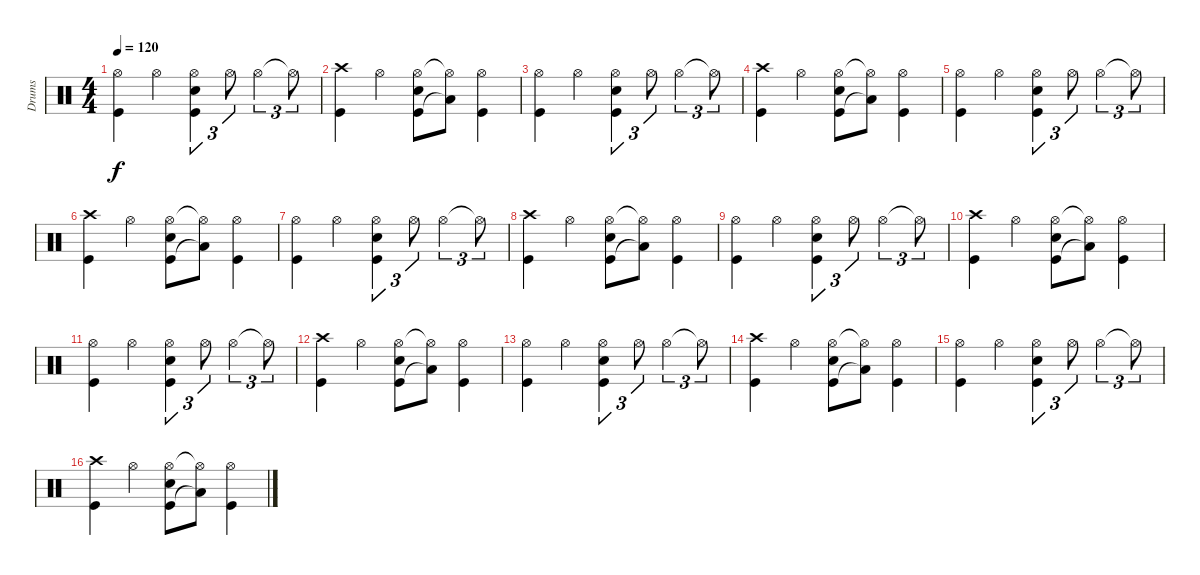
\track ("Drums" "Drums") {instrument percussion}
\staff {score}
\articulation defaults
\ts (4 4)
\tempo 120
\clef neutral
\ks c
("Hi-Hat (open)" "Kick (hit)").4{dy f} "Hi-Hat (open)".4 ("Hi-Hat (open)" "Kick (hit)" "Electric Snare (hit)").4{tu (3 2)} "Hi-Hat (open)".8{tu (3 2)} "Hi-Hat (open)".4{tu (3 2)} "Hi-Hat (open)"{t}.8{tu (3 2)} |
("Crash high (hit)" "Kick (hit)").4 "Hi-Hat (open)".4 ("Hi-Hat (open)" "Kick (hit)" "Electric Snare (hit)").8 ("Hi-Hat (open)"{t} "Low Tom (hit)"{t}).8 ("Hi-Hat (open)" "Kick (hit)").4 |
("Hi-Hat (open)" "Kick (hit)").4 "Hi-Hat (open)".4 ("Hi-Hat (open)" "Kick (hit)" "Electric Snare (hit)").4{tu (3 2)} "Hi-Hat (open)".8{tu (3 2)} "Hi-Hat (open)".4{tu (3 2)} "Hi-Hat (open)"{t}.8{tu (3 2)} |
("Crash high (hit)" "Kick (hit)").4 "Hi-Hat (open)".4 ("Hi-Hat (open)" "Kick (hit)" "Electric Snare (hit)").8 ("Hi-Hat (open)"{t} "Low Tom (hit)"{t}).8 ("Hi-Hat (open)" "Kick (hit)").4 |
("Hi-Hat (open)" "Kick (hit)").4 "Hi-Hat (open)".4 ("Hi-Hat (open)" "Kick (hit)" "Electric Snare (hit)").4{tu (3 2)} "Hi-Hat (open)".8{tu (3 2)} "Hi-Hat (open)".4{tu (3 2)} "Hi-Hat (open)"{t}.8{tu (3 2)} |
("Crash high (hit)" "Kick (hit)").4 "Hi-Hat (open)".4 ("Hi-Hat (open)" "Kick (hit)" "Electric Snare (hit)").8 ("Hi-Hat (open)"{t} "Low Tom (hit)"{t}).8 ("Hi-Hat (open)" "Kick (hit)").4 |
("Hi-Hat (open)" "Kick (hit)").4 "Hi-Hat (open)".4 ("Hi-Hat (open)" "Kick (hit)" "Electric Snare (hit)").4{tu (3 2)} "Hi-Hat (open)".8{tu (3 2)} "Hi-Hat (open)".4{tu (3 2)} "Hi-Hat (open)"{t}.8{tu (3 2)} |
("Crash high (hit)" "Kick (hit)").4 "Hi-Hat (open)".4 ("Hi-Hat (open)" "Kick (hit)" "Electric Snare (hit)").8 ("Hi-Hat (open)"{t} "Low Tom (hit)"{t}).8 ("Hi-Hat (open)" "Kick (hit)").4 |
("Hi-Hat (open)" "Kick (hit)").4 "Hi-Hat (open)".4 ("Hi-Hat (open)" "Kick (hit)" "Electric Snare (hit)").4{tu (3 2)} "Hi-Hat (open)".8{tu (3 2)} "Hi-Hat (open)".4{tu (3 2)} "Hi-Hat (open)"{t}.8{tu (3 2)} |
("Crash high (hit)" "Kick (hit)").4 "Hi-Hat (open)".4 ("Hi-Hat (open)" "Kick (hit)" "Electric Snare (hit)").8 ("Hi-Hat (open)"{t} "Low Tom (hit)"{t}).8 ("Hi-Hat (open)" "Kick (hit)").4 |
("Hi-Hat (open)" "Kick (hit)").4 "Hi-Hat (open)".4 ("Hi-Hat (open)" "Kick (hit)" "Electric Snare (hit)").4{tu (3 2)} "Hi-Hat (open)".8{tu (3 2)} "Hi-Hat (open)".4{tu (3 2)} "Hi-Hat (open)"{t}.8{tu (3 2)} |
("Crash high (hit)" "Kick (hit)").4 "Hi-Hat (open)".4 ("Hi-Hat (open)" "Kick (hit)" "Electric Snare (hit)").8 ("Hi-Hat (open)"{t} "Low Tom (hit)"{t}).8 ("Hi-Hat (open)" "Kick (hit)").4 |
("Hi-Hat (open)" "Kick (hit)").4 "Hi-Hat (open)".4 ("Hi-Hat (open)" "Kick (hit)" "Electric Snare (hit)").4{tu (3 2)} "Hi-Hat (open)".8{tu (3 2)} "Hi-Hat (open)".4{tu (3 2)} "Hi-Hat (open)"{t}.8{tu (3 2)} |
("Crash high (hit)" "Kick (hit)").4 "Hi-Hat (open)".4 ("Hi-Hat (open)" "Kick (hit)" "Electric Snare (hit)").8 ("Hi-Hat (open)"{t} "Low Tom (hit)"{t}).8 ("Hi-Hat (open)" "Kick (hit)").4 |
("Hi-Hat (open)" "Kick (hit)").4 "Hi-Hat (open)".4 ("Hi-Hat (open)" "Kick (hit)" "Electric Snare (hit)").4{tu (3 2)} "Hi-Hat (open)".8{tu (3 2)} "Hi-Hat (open)".4{tu (3 2)} "Hi-Hat (open)"{t}.8{tu (3 2)} |
("Crash high (hit)" "Kick (hit)").4 "Hi-Hat (open)".4 ("Hi-Hat (open)" "Kick (hit)" "Electric Snare (hit)").8 ("Hi-Hat (open)"{t} "Low Tom (hit)"{t}).8 ("Hi-Hat (open)" "Kick (hit)").4
